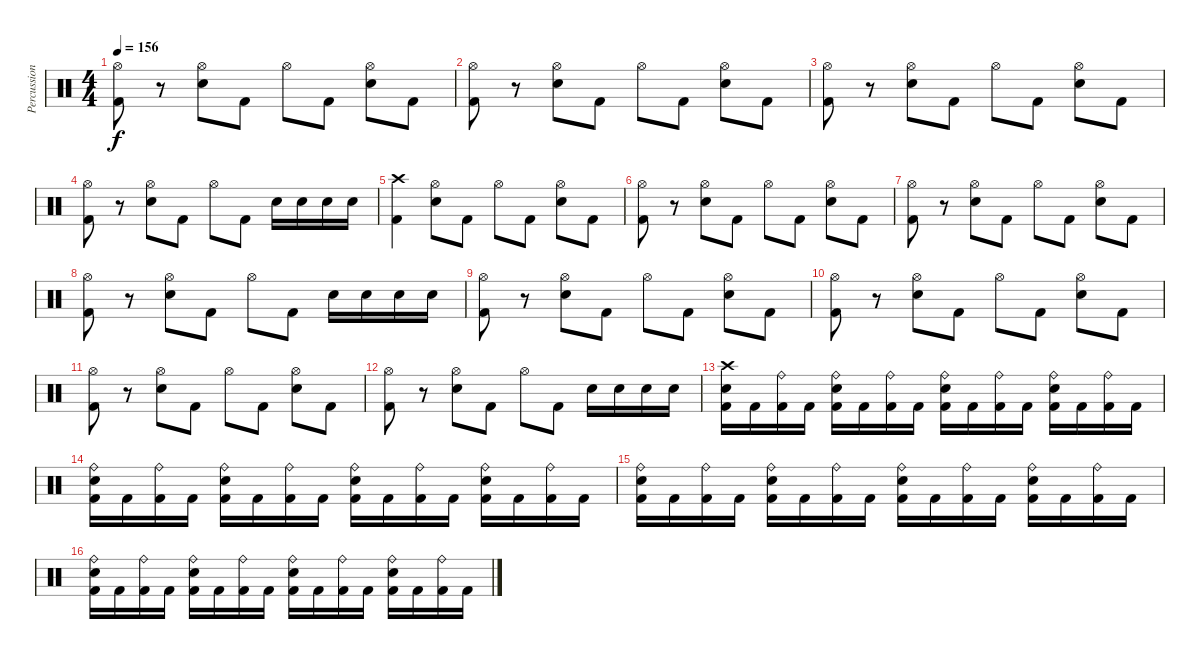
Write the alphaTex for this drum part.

\track ("Percussion" "Percussion") {instrument percussion}
\staff {score}
\articulation defaults
\ts (4 4)
\tempo 156
\clef neutral
\ks c
("Hi-Hat (open)" "Kick (hit) 2").8{dy f} r.8 ("Hi-Hat (open)" "Snare (hit) 2").8 "Kick (hit) 2".8 "Hi-Hat (open)".8 "Kick (hit) 2".8 ("Hi-Hat (open)" "Snare (hit) 2").8 "Kick (hit) 2".8 |
("Hi-Hat (open)" "Kick (hit) 2").8 r.8 ("Hi-Hat (open)" "Snare (hit) 2").8 "Kick (hit) 2".8 "Hi-Hat (open)".8 "Kick (hit) 2".8 ("Hi-Hat (open)" "Snare (hit) 2").8 "Kick (hit) 2".8 |
("Hi-Hat (open)" "Kick (hit) 2").8 r.8 ("Hi-Hat (open)" "Snare (hit) 2").8 "Kick (hit) 2".8 "Hi-Hat (open)".8 "Kick (hit) 2".8 ("Hi-Hat (open)" "Snare (hit) 2").8 "Kick (hit) 2".8 |
("Hi-Hat (open)" "Kick (hit) 2").8 r.8 ("Hi-Hat (open)" "Snare (hit) 2").8 "Kick (hit) 2".8 "Hi-Hat (open)".8 "Kick (hit) 2".8 "Snare (hit) 2".16 "Snare (hit) 2".16 "Snare (hit) 2".16 "Snare (hit) 2".16 |
("Crash high (hit)" "Kick (hit) 2").4 ("Hi-Hat (open)" "Snare (hit) 2").8 "Kick (hit) 2".8 "Hi-Hat (open)".8 "Kick (hit) 2".8 ("Hi-Hat (open)" "Snare (hit) 2").8 "Kick (hit) 2".8 |
("Hi-Hat (open)" "Kick (hit) 2").8 r.8 ("Hi-Hat (open)" "Snare (hit) 2").8 "Kick (hit) 2".8 "Hi-Hat (open)".8 "Kick (hit) 2".8 ("Hi-Hat (open)" "Snare (hit) 2").8 "Kick (hit) 2".8 |
("Hi-Hat (open)" "Kick (hit) 2").8 r.8 ("Hi-Hat (open)" "Snare (hit) 2").8 "Kick (hit) 2".8 "Hi-Hat (open)".8 "Kick (hit) 2".8 ("Hi-Hat (open)" "Snare (hit) 2").8 "Kick (hit) 2".8 |
("Hi-Hat (open)" "Kick (hit) 2").8 r.8 ("Hi-Hat (open)" "Snare (hit) 2").8 "Kick (hit) 2".8 "Hi-Hat (open)".8 "Kick (hit) 2".8 "Snare (hit) 2".16 "Snare (hit) 2".16 "Snare (hit) 2".16 "Snare (hit) 2".16 |
("Hi-Hat (open)" "Kick (hit) 2").8 r.8 ("Hi-Hat (open)" "Snare (hit) 2").8 "Kick (hit) 2".8 "Hi-Hat (open)".8 "Kick (hit) 2".8 ("Hi-Hat (open)" "Snare (hit) 2").8 "Kick (hit) 2".8 |
("Hi-Hat (open)" "Kick (hit) 2").8 r.8 ("Hi-Hat (open)" "Snare (hit) 2").8 "Kick (hit) 2".8 "Hi-Hat (open)".8 "Kick (hit) 2".8 ("Hi-Hat (open)" "Snare (hit) 2").8 "Kick (hit) 2".8 |
("Hi-Hat (open)" "Kick (hit) 2").8 r.8 ("Hi-Hat (open)" "Snare (hit) 2").8 "Kick (hit) 2".8 "Hi-Hat (open)".8 "Kick (hit) 2".8 ("Hi-Hat (open)" "Snare (hit) 2").8 "Kick (hit) 2".8 |
("Hi-Hat (open)" "Kick (hit) 2").8 r.8 ("Hi-Hat (open)" "Snare (hit) 2").8 "Kick (hit) 2".8 "Hi-Hat (open)".8 "Kick (hit) 2".8 "Snare (hit) 2".16 "Snare (hit) 2".16 "Snare (hit) 2".16 "Snare (hit) 2".16 |
("Crash high (hit)" "Snare (hit) 2" "Kick (hit) 2").16 "Kick (hit) 2".16 ("Ride (bell)" "Kick (hit) 2").16 "Kick (hit) 2".16 ("Ride (bell)" "Snare (hit) 2" "Kick (hit) 2").16 "Kick (hit) 2".16 ("Ride (bell)" "Kick (hit) 2").16 "Kick (hit) 2".16 ("Ride (bell)" "Snare (hit) 2" "Kick (hit) 2").16 "Kick (hit) 2".16 ("Ride (bell)" "Kick (hit) 2").16 "Kick (hit) 2".16 ("Ride (bell)" "Snare (hit) 2" "Kick (hit) 2").16 "Kick (hit) 2".16 ("Ride (bell)" "Kick (hit) 2").16 "Kick (hit) 2".16 |
("Ride (bell)" "Snare (hit) 2" "Kick (hit) 2").16 "Kick (hit) 2".16 ("Ride (bell)" "Kick (hit) 2").16 "Kick (hit) 2".16 ("Ride (bell)" "Snare (hit) 2" "Kick (hit) 2").16 "Kick (hit) 2".16 ("Ride (bell)" "Kick (hit) 2").16 "Kick (hit) 2".16 ("Ride (bell)" "Snare (hit) 2" "Kick (hit) 2").16 "Kick (hit) 2".16 ("Ride (bell)" "Kick (hit) 2").16 "Kick (hit) 2".16 ("Ride (bell)" "Snare (hit) 2" "Kick (hit) 2").16 "Kick (hit) 2".16 ("Ride (bell)" "Kick (hit) 2").16 "Kick (hit) 2".16 |
("Ride (bell)" "Snare (hit) 2" "Kick (hit) 2").16 "Kick (hit) 2".16 ("Ride (bell)" "Kick (hit) 2").16 "Kick (hit) 2".16 ("Ride (bell)" "Snare (hit) 2" "Kick (hit) 2").16 "Kick (hit) 2".16 ("Ride (bell)" "Kick (hit) 2").16 "Kick (hit) 2".16 ("Ride (bell)" "Snare (hit) 2" "Kick (hit) 2").16 "Kick (hit) 2".16 ("Ride (bell)" "Kick (hit) 2").16 "Kick (hit) 2".16 ("Ride (bell)" "Snare (hit) 2" "Kick (hit) 2").16 "Kick (hit) 2".16 ("Ride (bell)" "Kick (hit) 2").16 "Kick (hit) 2".16 |
("Ride (bell)" "Snare (hit) 2" "Kick (hit) 2").16 "Kick (hit) 2".16 ("Ride (bell)" "Kick (hit) 2").16 "Kick (hit) 2".16 ("Ride (bell)" "Snare (hit) 2" "Kick (hit) 2").16 "Kick (hit) 2".16 ("Ride (bell)" "Kick (hit) 2").16 "Kick (hit) 2".16 ("Ride (bell)" "Snare (hit) 2" "Kick (hit) 2").16 "Kick (hit) 2".16 ("Ride (bell)" "Kick (hit) 2").16 "Kick (hit) 2".16 ("Ride (bell)" "Snare (hit) 2" "Kick (hit) 2").16 "Kick (hit) 2".16 ("Ride (bell)" "Kick (hit) 2").16 "Kick (hit) 2".16
